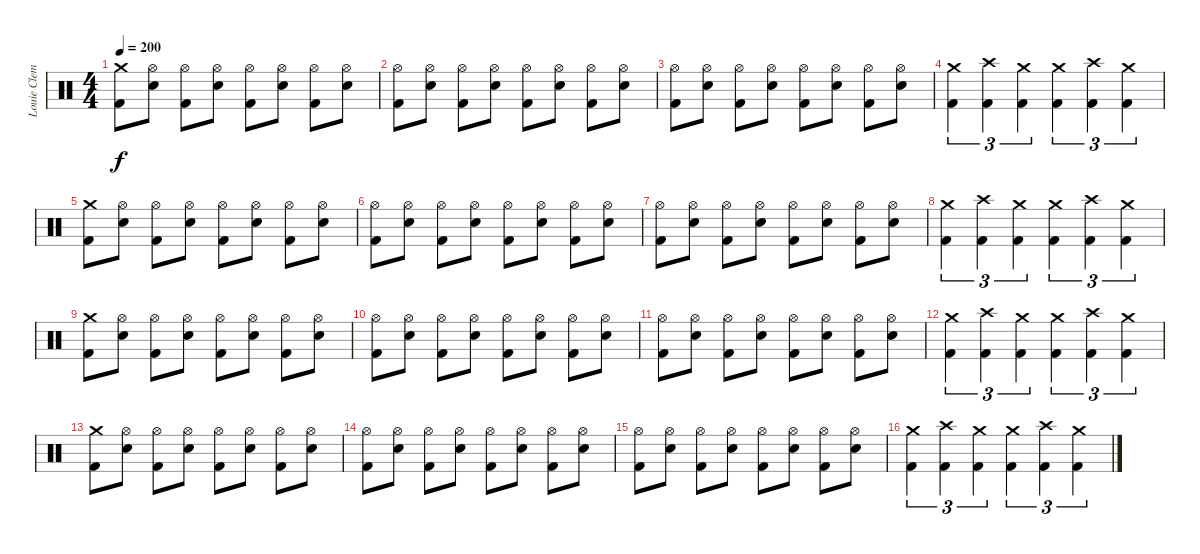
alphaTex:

\track ("Louie Clemente" "Louie Clem") {instrument percussion}
\staff {score}
\articulation defaults
\ts (4 4)
\tempo 200
\clef neutral
\ks c
("Crash medium (hit)" "Kick (hit) 2").8{dy f} ("Hi-Hat (open)" "Snare (hit) 2").8 ("Hi-Hat (open)" "Kick (hit) 2").8 ("Hi-Hat (open)" "Snare (hit) 2").8 ("Hi-Hat (open)" "Kick (hit) 2").8 ("Hi-Hat (open)" "Snare (hit) 2").8 ("Hi-Hat (open)" "Kick (hit) 2").8 ("Hi-Hat (open)" "Snare (hit) 2").8 |
("Hi-Hat (open)" "Kick (hit) 2").8 ("Hi-Hat (open)" "Snare (hit) 2").8 ("Hi-Hat (open)" "Kick (hit) 2").8 ("Hi-Hat (open)" "Snare (hit) 2").8 ("Hi-Hat (open)" "Kick (hit) 2").8 ("Hi-Hat (open)" "Snare (hit) 2").8 ("Hi-Hat (open)" "Kick (hit) 2").8 ("Hi-Hat (open)" "Snare (hit) 2").8 |
("Hi-Hat (open)" "Kick (hit) 2").8 ("Hi-Hat (open)" "Snare (hit) 2").8 ("Hi-Hat (open)" "Kick (hit) 2").8 ("Hi-Hat (open)" "Snare (hit) 2").8 ("Hi-Hat (open)" "Kick (hit) 2").8 ("Hi-Hat (open)" "Snare (hit) 2").8 ("Hi-Hat (open)" "Kick (hit) 2").8 ("Hi-Hat (open)" "Snare (hit) 2").8 |
("Crash medium (hit)" "Kick (hit) 2").4{tu (3 2)} ("Crash high (hit)" "Kick (hit) 2").4{tu (3 2)} ("Crash medium (hit)" "Kick (hit) 2").4{tu (3 2)} ("Crash medium (hit)" "Kick (hit) 2").4{tu (3 2)} ("Crash high (hit)" "Kick (hit) 2").4{tu (3 2)} ("Crash medium (hit)" "Kick (hit) 2").4{tu (3 2)} |
("Crash medium (hit)" "Kick (hit) 2").8 ("Hi-Hat (open)" "Snare (hit) 2").8 ("Hi-Hat (open)" "Kick (hit) 2").8 ("Hi-Hat (open)" "Snare (hit) 2").8 ("Hi-Hat (open)" "Kick (hit) 2").8 ("Hi-Hat (open)" "Snare (hit) 2").8 ("Hi-Hat (open)" "Kick (hit) 2").8 ("Hi-Hat (open)" "Snare (hit) 2").8 |
("Hi-Hat (open)" "Kick (hit) 2").8 ("Hi-Hat (open)" "Snare (hit) 2").8 ("Hi-Hat (open)" "Kick (hit) 2").8 ("Hi-Hat (open)" "Snare (hit) 2").8 ("Hi-Hat (open)" "Kick (hit) 2").8 ("Hi-Hat (open)" "Snare (hit) 2").8 ("Hi-Hat (open)" "Kick (hit) 2").8 ("Hi-Hat (open)" "Snare (hit) 2").8 |
("Hi-Hat (open)" "Kick (hit) 2").8 ("Hi-Hat (open)" "Snare (hit) 2").8 ("Hi-Hat (open)" "Kick (hit) 2").8 ("Hi-Hat (open)" "Snare (hit) 2").8 ("Hi-Hat (open)" "Kick (hit) 2").8 ("Hi-Hat (open)" "Snare (hit) 2").8 ("Hi-Hat (open)" "Kick (hit) 2").8 ("Hi-Hat (open)" "Snare (hit) 2").8 |
("Crash medium (hit)" "Kick (hit) 2").4{tu (3 2)} ("Crash high (hit)" "Kick (hit) 2").4{tu (3 2)} ("Crash medium (hit)" "Kick (hit) 2").4{tu (3 2)} ("Crash medium (hit)" "Kick (hit) 2").4{tu (3 2)} ("Crash high (hit)" "Kick (hit) 2").4{tu (3 2)} ("Crash medium (hit)" "Kick (hit) 2").4{tu (3 2)} |
("Crash medium (hit)" "Kick (hit) 2").8 ("Hi-Hat (open)" "Snare (hit) 2").8 ("Hi-Hat (open)" "Kick (hit) 2").8 ("Hi-Hat (open)" "Snare (hit) 2").8 ("Hi-Hat (open)" "Kick (hit) 2").8 ("Hi-Hat (open)" "Snare (hit) 2").8 ("Hi-Hat (open)" "Kick (hit) 2").8 ("Hi-Hat (open)" "Snare (hit) 2").8 |
("Hi-Hat (open)" "Kick (hit) 2").8 ("Hi-Hat (open)" "Snare (hit) 2").8 ("Hi-Hat (open)" "Kick (hit) 2").8 ("Hi-Hat (open)" "Snare (hit) 2").8 ("Hi-Hat (open)" "Kick (hit) 2").8 ("Hi-Hat (open)" "Snare (hit) 2").8 ("Hi-Hat (open)" "Kick (hit) 2").8 ("Hi-Hat (open)" "Snare (hit) 2").8 |
("Hi-Hat (open)" "Kick (hit) 2").8 ("Hi-Hat (open)" "Snare (hit) 2").8 ("Hi-Hat (open)" "Kick (hit) 2").8 ("Hi-Hat (open)" "Snare (hit) 2").8 ("Hi-Hat (open)" "Kick (hit) 2").8 ("Hi-Hat (open)" "Snare (hit) 2").8 ("Hi-Hat (open)" "Kick (hit) 2").8 ("Hi-Hat (open)" "Snare (hit) 2").8 |
("Crash medium (hit)" "Kick (hit) 2").4{tu (3 2)} ("Crash high (hit)" "Kick (hit) 2").4{tu (3 2)} ("Crash medium (hit)" "Kick (hit) 2").4{tu (3 2)} ("Crash medium (hit)" "Kick (hit) 2").4{tu (3 2)} ("Crash high (hit)" "Kick (hit) 2").4{tu (3 2)} ("Crash medium (hit)" "Kick (hit) 2").4{tu (3 2)} |
("Crash medium (hit)" "Kick (hit) 2").8 ("Hi-Hat (open)" "Snare (hit) 2").8 ("Hi-Hat (open)" "Kick (hit) 2").8 ("Hi-Hat (open)" "Snare (hit) 2").8 ("Hi-Hat (open)" "Kick (hit) 2").8 ("Hi-Hat (open)" "Snare (hit) 2").8 ("Hi-Hat (open)" "Kick (hit) 2").8 ("Hi-Hat (open)" "Snare (hit) 2").8 |
("Hi-Hat (open)" "Kick (hit) 2").8 ("Hi-Hat (open)" "Snare (hit) 2").8 ("Hi-Hat (open)" "Kick (hit) 2").8 ("Hi-Hat (open)" "Snare (hit) 2").8 ("Hi-Hat (open)" "Kick (hit) 2").8 ("Hi-Hat (open)" "Snare (hit) 2").8 ("Hi-Hat (open)" "Kick (hit) 2").8 ("Hi-Hat (open)" "Snare (hit) 2").8 |
("Hi-Hat (open)" "Kick (hit) 2").8 ("Hi-Hat (open)" "Snare (hit) 2").8 ("Hi-Hat (open)" "Kick (hit) 2").8 ("Hi-Hat (open)" "Snare (hit) 2").8 ("Hi-Hat (open)" "Kick (hit) 2").8 ("Hi-Hat (open)" "Snare (hit) 2").8 ("Hi-Hat (open)" "Kick (hit) 2").8 ("Hi-Hat (open)" "Snare (hit) 2").8 |
("Crash medium (hit)" "Kick (hit) 2").4{tu (3 2)} ("Crash high (hit)" "Kick (hit) 2").4{tu (3 2)} ("Crash medium (hit)" "Kick (hit) 2").4{tu (3 2)} ("Crash medium (hit)" "Kick (hit) 2").4{tu (3 2)} ("Crash high (hit)" "Kick (hit) 2").4{tu (3 2)} ("Crash medium (hit)" "Kick (hit) 2").4{tu (3 2)}
